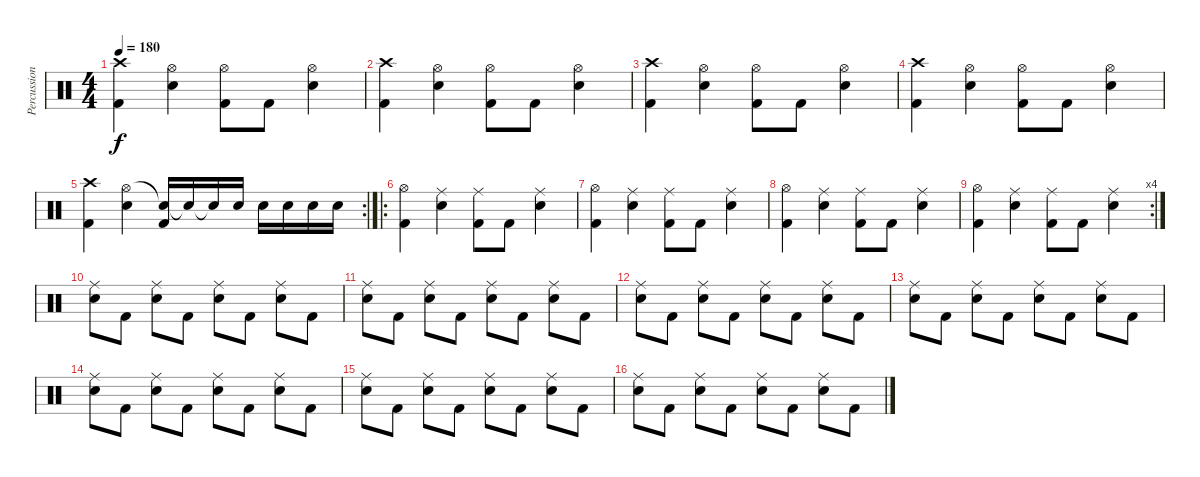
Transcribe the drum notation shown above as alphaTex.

\track ("Percussion" "Percussion") {instrument percussion}
\staff {score}
\articulation defaults
\ts (4 4)
\tempo 180
\clef neutral
\ks c
("Crash high (hit)" "Kick (hit) 2").4{dy f} ("Hi-Hat (open)" "Electric Snare (hit)").4 ("Hi-Hat (open)" "Kick (hit) 2").8 "Kick (hit) 2".8 ("Hi-Hat (open)" "Electric Snare (hit)").4 |
("Crash high (hit)" "Kick (hit) 2").4 ("Hi-Hat (open)" "Electric Snare (hit)").4 ("Hi-Hat (open)" "Kick (hit) 2").8 "Kick (hit) 2".8 ("Hi-Hat (open)" "Electric Snare (hit)").4 |
("Crash high (hit)" "Kick (hit) 2").4 ("Hi-Hat (open)" "Electric Snare (hit)").4 ("Hi-Hat (open)" "Kick (hit) 2").8 "Kick (hit) 2".8 ("Hi-Hat (open)" "Electric Snare (hit)").4 |
("Crash high (hit)" "Kick (hit) 2").4 ("Hi-Hat (open)" "Electric Snare (hit)").4 ("Hi-Hat (open)" "Kick (hit) 2").8 "Kick (hit) 2".8 ("Hi-Hat (open)" "Electric Snare (hit)").4 |
\rc 2
("Crash high (hit)" "Kick (hit) 2").4 ("Hi-Hat (open)" "Electric Snare (hit)").4 ("Electric Snare (hit)"{t} "Kick (hit) 2").16 "Electric Snare (hit)"{t}.16 "Electric Snare (hit)"{t}.16 "Electric Snare (hit)".16 "Electric Snare (hit)".16 "Electric Snare (hit)".16 "Electric Snare (hit)".16 "Electric Snare (hit)".16 |
\ro
("Hi-Hat (open)" "Kick (hit) 2").4 ("Ride (middle)" "Electric Snare (hit)").4 ("Ride (middle)" "Kick (hit) 2").8 "Kick (hit) 2".8 ("Ride (middle)" "Electric Snare (hit)").4 |
("Hi-Hat (open)" "Kick (hit) 2").4 ("Ride (middle)" "Electric Snare (hit)").4 ("Ride (middle)" "Kick (hit) 2").8 "Kick (hit) 2".8 ("Ride (middle)" "Electric Snare (hit)").4 |
("Hi-Hat (open)" "Kick (hit) 2").4 ("Ride (middle)" "Electric Snare (hit)").4 ("Ride (middle)" "Kick (hit) 2").8 "Kick (hit) 2".8 ("Ride (middle)" "Electric Snare (hit)").4 |
\rc 4
("Hi-Hat (open)" "Kick (hit) 2").4 ("Ride (middle)" "Electric Snare (hit)").4 ("Ride (middle)" "Kick (hit) 2").8 "Kick (hit) 2".8 ("Ride (middle)" "Electric Snare (hit)").4 |
("Ride (middle)" "Electric Snare (hit)").8 "Kick (hit) 2".8 ("Ride (middle)" "Electric Snare (hit)").8 "Kick (hit) 2".8 ("Ride (middle)" "Electric Snare (hit)").8 "Kick (hit) 2".8 ("Ride (middle)" "Electric Snare (hit)").8 "Kick (hit) 2".8 |
("Ride (middle)" "Electric Snare (hit)").8 "Kick (hit) 2".8 ("Ride (middle)" "Electric Snare (hit)").8 "Kick (hit) 2".8 ("Ride (middle)" "Electric Snare (hit)").8 "Kick (hit) 2".8 ("Ride (middle)" "Electric Snare (hit)").8 "Kick (hit) 2".8 |
("Ride (middle)" "Electric Snare (hit)").8 "Kick (hit) 2".8 ("Ride (middle)" "Electric Snare (hit)").8 "Kick (hit) 2".8 ("Ride (middle)" "Electric Snare (hit)").8 "Kick (hit) 2".8 ("Ride (middle)" "Electric Snare (hit)").8 "Kick (hit) 2".8 |
("Ride (middle)" "Electric Snare (hit)").8 "Kick (hit) 2".8 ("Ride (middle)" "Electric Snare (hit)").8 "Kick (hit) 2".8 ("Ride (middle)" "Electric Snare (hit)").8 "Kick (hit) 2".8 ("Ride (middle)" "Electric Snare (hit)").8 "Kick (hit) 2".8 |
("Ride (middle)" "Electric Snare (hit)").8 "Kick (hit) 2".8 ("Ride (middle)" "Electric Snare (hit)").8 "Kick (hit) 2".8 ("Ride (middle)" "Electric Snare (hit)").8 "Kick (hit) 2".8 ("Ride (middle)" "Electric Snare (hit)").8 "Kick (hit) 2".8 |
("Ride (middle)" "Electric Snare (hit)").8 "Kick (hit) 2".8 ("Ride (middle)" "Electric Snare (hit)").8 "Kick (hit) 2".8 ("Ride (middle)" "Electric Snare (hit)").8 "Kick (hit) 2".8 ("Ride (middle)" "Electric Snare (hit)").8 "Kick (hit) 2".8 |
("Ride (middle)" "Electric Snare (hit)").8 "Kick (hit) 2".8 ("Ride (middle)" "Electric Snare (hit)").8 "Kick (hit) 2".8 ("Ride (middle)" "Electric Snare (hit)").8 "Kick (hit) 2".8 ("Ride (middle)" "Electric Snare (hit)").8 "Kick (hit) 2".8
